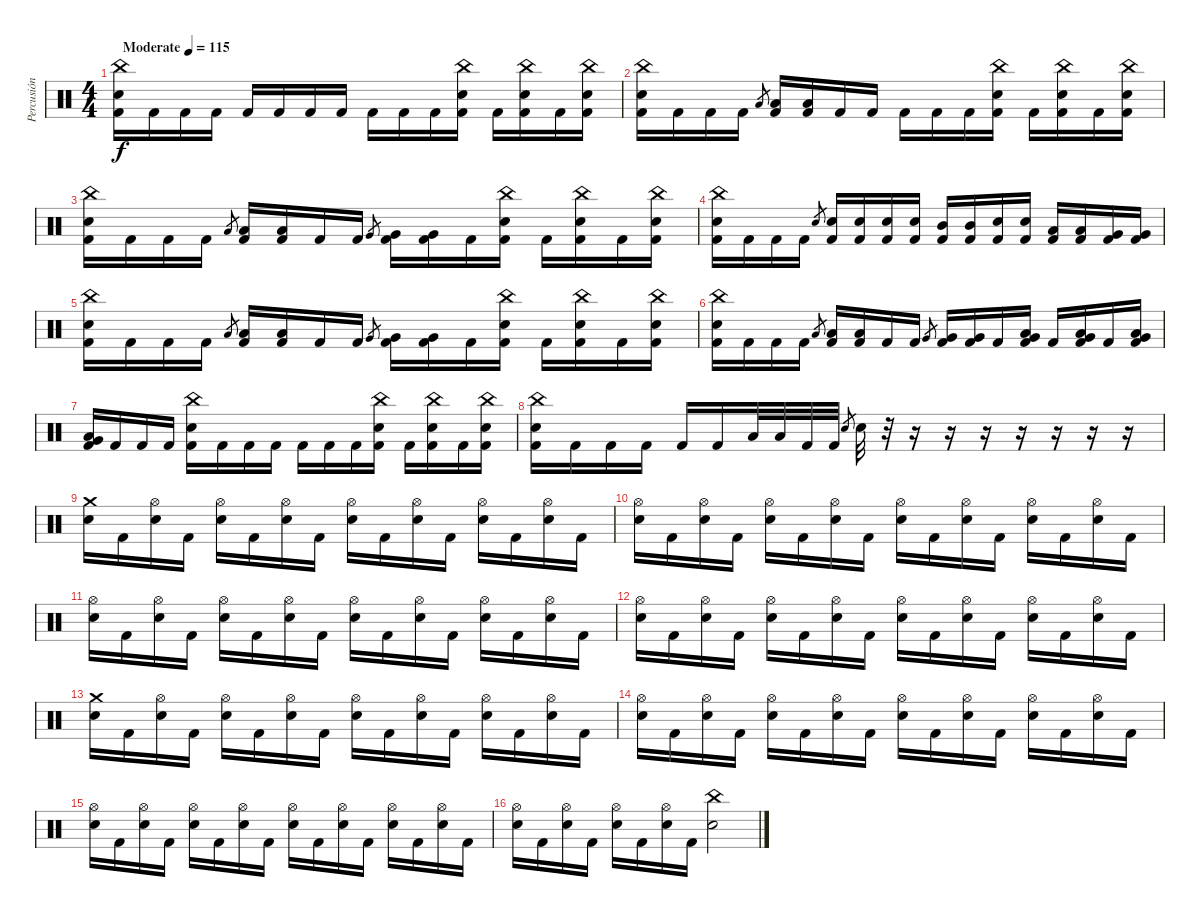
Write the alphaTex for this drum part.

\track ("Percusión" "Percusión") {instrument percussion}
\staff {score}
\articulation defaults
\ts (4 4)
\tempo (115 "Moderate")
\clef neutral
\ks c
("China (hit)" "Snare (hit) 2" "Kick (hit) 2").16{dy f} "Kick (hit) 2".16 "Kick (hit) 2".16 "Kick (hit) 2".16 "Kick (hit) 2".16 "Kick (hit) 2".16 "Kick (hit) 2".16 "Kick (hit) 2".16 "Kick (hit) 2".16 "Kick (hit) 2".16 "Kick (hit) 2".16 ("China (hit)" "Snare (hit) 2" "Kick (hit) 2").16 "Kick (hit) 2".16 ("China (hit)" "Snare (hit) 2" "Kick (hit) 2").16 "Kick (hit) 2".16 ("China (hit)" "Snare (hit) 2" "Kick (hit) 2").16 |
("China (hit)" "Snare (hit) 2" "Kick (hit) 2").16 "Kick (hit) 2".16 "Kick (hit) 2".16 "Kick (hit) 2".16 "Low Tom (hit)".8{gr} ("Low Tom (hit)" "Kick (hit) 2").16 ("Low Tom (hit)" "Kick (hit) 2").16 "Kick (hit) 2".16 "Kick (hit) 2".16 "Kick (hit) 2".16 "Kick (hit) 2".16 "Kick (hit) 2".16 ("China (hit)" "Snare (hit) 2" "Kick (hit) 2").16 "Kick (hit) 2".16 ("China (hit)" "Snare (hit) 2" "Kick (hit) 2").16 "Kick (hit) 2".16 ("China (hit)" "Snare (hit) 2" "Kick (hit) 2").16 |
("China (hit)" "Snare (hit) 2" "Kick (hit) 2").16 "Kick (hit) 2".16 "Kick (hit) 2".16 "Kick (hit) 2".16 "Low Tom (hit)".8{gr} ("Low Tom (hit)" "Kick (hit) 2").16 ("Low Tom (hit)" "Kick (hit) 2").16 "Kick (hit) 2".16 "Kick (hit) 2".16 "Very Low Tom (hit)".8{gr} ("Very Low Tom (hit)" "Kick (hit) 2").16 ("Very Low Tom (hit)" "Kick (hit) 2").16 "Kick (hit) 2".16 ("China (hit)" "Snare (hit) 2" "Kick (hit) 2").16 "Kick (hit) 2".16 ("China (hit)" "Snare (hit) 2" "Kick (hit) 2").16 "Kick (hit) 2".16 ("China (hit)" "Snare (hit) 2" "Kick (hit) 2").16 |
("China (hit)" "Snare (hit) 2" "Kick (hit) 2").16 "Kick (hit) 2".16 "Kick (hit) 2".16 "Kick (hit) 2".16 "Snare (hit) 2".8{gr} ("Snare (hit) 2" "Kick (hit) 2").16 ("Snare (hit) 2" "Kick (hit) 2").16 ("Snare (hit) 2" "Kick (hit) 2").16 ("Snare (hit) 2" "Kick (hit) 2").16 ("Mid Tom (hit)" "Kick (hit) 2").16 ("Mid Tom (hit)" "Kick (hit) 2").16 ("Snare (hit) 2" "Kick (hit) 2").16 ("Snare (hit) 2" "Kick (hit) 2").16 ("Low Tom (hit)" "Kick (hit) 2").16 ("Low Tom (hit)" "Kick (hit) 2").16 ("Very Low Tom (hit)" "Kick (hit) 2").16 ("Very Low Tom (hit)" "Kick (hit) 2").16 |
("China (hit)" "Snare (hit) 2" "Kick (hit) 2").16 "Kick (hit) 2".16 "Kick (hit) 2".16 "Kick (hit) 2".16 "Low Tom (hit)".8{gr} ("Low Tom (hit)" "Kick (hit) 2").16 ("Low Tom (hit)" "Kick (hit) 2").16 "Kick (hit) 2".16 "Kick (hit) 2".16 "Very Low Tom (hit)".8{gr} ("Very Low Tom (hit)" "Kick (hit) 2").16 ("Very Low Tom (hit)" "Kick (hit) 2").16 "Kick (hit) 2".16 ("China (hit)" "Snare (hit) 2" "Kick (hit) 2").16 "Kick (hit) 2".16 ("China (hit)" "Snare (hit) 2" "Kick (hit) 2").16 "Kick (hit) 2".16 ("China (hit)" "Snare (hit) 2" "Kick (hit) 2").16 |
("China (hit)" "Snare (hit) 2" "Kick (hit) 2").16 "Kick (hit) 2".16 "Kick (hit) 2".16 "Kick (hit) 2".16 "Low Tom (hit)".8{gr} ("Low Tom (hit)" "Kick (hit) 2").16 ("Low Tom (hit)" "Kick (hit) 2").16 "Kick (hit) 2".16 "Kick (hit) 2".16 "Very Low Tom (hit)".8{gr} ("Very Low Tom (hit)" "Kick (hit) 2").16 ("Very Low Tom (hit)" "Kick (hit) 2").16 "Kick (hit) 2".16 ("Very Low Tom (hit)" "Low Tom (hit)" "Kick (hit) 2").16 "Kick (hit) 2".16 ("Very Low Tom (hit)" "Low Tom (hit)" "Kick (hit) 2").16 "Kick (hit) 2".16 ("Very Low Tom (hit)" "Low Tom (hit)" "Kick (hit) 2").16 |
("Very Low Tom (hit)" "Low Tom (hit)" "Kick (hit) 2").16 "Kick (hit) 2".16 "Kick (hit) 2".16 "Kick (hit) 2".16 ("China (hit)" "Snare (hit) 2" "Kick (hit) 2").16 "Kick (hit) 2".16 "Kick (hit) 2".16 "Kick (hit) 2".16 "Kick (hit) 2".16 "Kick (hit) 2".16 "Kick (hit) 2".16 ("China (hit)" "Snare (hit) 2" "Kick (hit) 2").16 "Kick (hit) 2".16 ("China (hit)" "Snare (hit) 2" "Kick (hit) 2").16 "Kick (hit) 2".16 ("China (hit)" "Snare (hit) 2" "Kick (hit) 2").16 |
("China (hit)" "Snare (hit) 2" "Kick (hit) 2").16 "Kick (hit) 2".16 "Kick (hit) 2".16 "Kick (hit) 2".16 "Kick (hit) 2".16 "Kick (hit) 2".16 "Low Tom (hit)".32 "Low Tom (hit)".32 "Kick (hit) 2".32 "Kick (hit) 2".32 "Snare (hit) 2".8{gr} "Snare (hit) 2".32 r.32 r.16 r.16 r.16 r.16 r.16 r.16 r.16 |
("Crash medium (hit)" "Snare (hit) 2").16 "Kick (hit) 2".16 ("Hi-Hat (open)" "Snare (hit) 2").16 "Kick (hit) 2".16 ("Hi-Hat (open)" "Snare (hit) 2").16 "Kick (hit) 2".16 ("Hi-Hat (open)" "Snare (hit) 2").16 "Kick (hit) 2".16 ("Hi-Hat (open)" "Snare (hit) 2").16 "Kick (hit) 2".16 ("Hi-Hat (open)" "Snare (hit) 2").16 "Kick (hit) 2".16 ("Hi-Hat (open)" "Snare (hit) 2").16 "Kick (hit) 2".16 ("Hi-Hat (open)" "Snare (hit) 2").16 "Kick (hit) 2".16 |
("Hi-Hat (open)" "Snare (hit) 2").16 "Kick (hit) 2".16 ("Hi-Hat (open)" "Snare (hit) 2").16 "Kick (hit) 2".16 ("Hi-Hat (open)" "Snare (hit) 2").16 "Kick (hit) 2".16 ("Hi-Hat (open)" "Snare (hit) 2").16 "Kick (hit) 2".16 ("Hi-Hat (open)" "Snare (hit) 2").16 "Kick (hit) 2".16 ("Hi-Hat (open)" "Snare (hit) 2").16 "Kick (hit) 2".16 ("Hi-Hat (open)" "Snare (hit) 2").16 "Kick (hit) 2".16 ("Hi-Hat (open)" "Snare (hit) 2").16 "Kick (hit) 2".16 |
("Hi-Hat (open)" "Snare (hit) 2").16 "Kick (hit) 2".16 ("Hi-Hat (open)" "Snare (hit) 2").16 "Kick (hit) 2".16 ("Hi-Hat (open)" "Snare (hit) 2").16 "Kick (hit) 2".16 ("Hi-Hat (open)" "Snare (hit) 2").16 "Kick (hit) 2".16 ("Hi-Hat (open)" "Snare (hit) 2").16 "Kick (hit) 2".16 ("Hi-Hat (open)" "Snare (hit) 2").16 "Kick (hit) 2".16 ("Hi-Hat (open)" "Snare (hit) 2").16 "Kick (hit) 2".16 ("Hi-Hat (open)" "Snare (hit) 2").16 "Kick (hit) 2".16 |
("Hi-Hat (open)" "Snare (hit) 2").16 "Kick (hit) 2".16 ("Hi-Hat (open)" "Snare (hit) 2").16 "Kick (hit) 2".16 ("Hi-Hat (open)" "Snare (hit) 2").16 "Kick (hit) 2".16 ("Hi-Hat (open)" "Snare (hit) 2").16 "Kick (hit) 2".16 ("Hi-Hat (open)" "Snare (hit) 2").16 "Kick (hit) 2".16 ("Hi-Hat (open)" "Snare (hit) 2").16 "Kick (hit) 2".16 ("Hi-Hat (open)" "Snare (hit) 2").16 "Kick (hit) 2".16 ("Hi-Hat (open)" "Snare (hit) 2").16 "Kick (hit) 2".16 |
("Crash medium (hit)" "Snare (hit) 2").16 "Kick (hit) 2".16 ("Hi-Hat (open)" "Snare (hit) 2").16 "Kick (hit) 2".16 ("Hi-Hat (open)" "Snare (hit) 2").16 "Kick (hit) 2".16 ("Hi-Hat (open)" "Snare (hit) 2").16 "Kick (hit) 2".16 ("Hi-Hat (open)" "Snare (hit) 2").16 "Kick (hit) 2".16 ("Hi-Hat (open)" "Snare (hit) 2").16 "Kick (hit) 2".16 ("Hi-Hat (open)" "Snare (hit) 2").16 "Kick (hit) 2".16 ("Hi-Hat (open)" "Snare (hit) 2").16 "Kick (hit) 2".16 |
("Hi-Hat (open)" "Snare (hit) 2").16 "Kick (hit) 2".16 ("Hi-Hat (open)" "Snare (hit) 2").16 "Kick (hit) 2".16 ("Hi-Hat (open)" "Snare (hit) 2").16 "Kick (hit) 2".16 ("Hi-Hat (open)" "Snare (hit) 2").16 "Kick (hit) 2".16 ("Hi-Hat (open)" "Snare (hit) 2").16 "Kick (hit) 2".16 ("Hi-Hat (open)" "Snare (hit) 2").16 "Kick (hit) 2".16 ("Hi-Hat (open)" "Snare (hit) 2").16 "Kick (hit) 2".16 ("Hi-Hat (open)" "Snare (hit) 2").16 "Kick (hit) 2".16 |
("Hi-Hat (open)" "Snare (hit) 2").16 "Kick (hit) 2".16 ("Hi-Hat (open)" "Snare (hit) 2").16 "Kick (hit) 2".16 ("Hi-Hat (open)" "Snare (hit) 2").16 "Kick (hit) 2".16 ("Hi-Hat (open)" "Snare (hit) 2").16 "Kick (hit) 2".16 ("Hi-Hat (open)" "Snare (hit) 2").16 "Kick (hit) 2".16 ("Hi-Hat (open)" "Snare (hit) 2").16 "Kick (hit) 2".16 ("Hi-Hat (open)" "Snare (hit) 2").16 "Kick (hit) 2".16 ("Hi-Hat (open)" "Snare (hit) 2").16 "Kick (hit) 2".16 |
("Hi-Hat (open)" "Snare (hit) 2").16 "Kick (hit) 2".16 ("Hi-Hat (open)" "Snare (hit) 2").16 "Kick (hit) 2".16 ("Hi-Hat (open)" "Snare (hit) 2").16 "Kick (hit) 2".16 ("Hi-Hat (open)" "Snare (hit) 2").16 "Kick (hit) 2".16 ("China (hit)" "Snare (hit) 2").2
